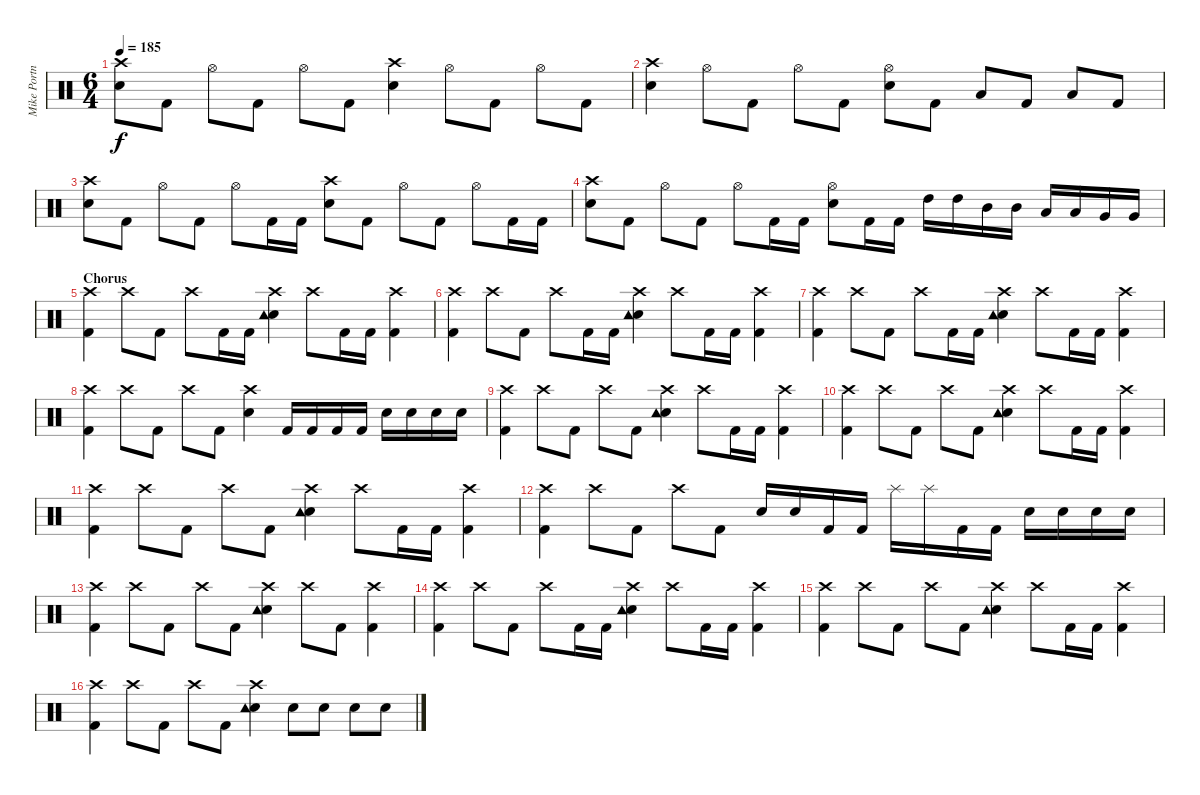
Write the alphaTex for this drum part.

\track ("Mike Portnoy" "Mike Portn") {instrument percussion}
\staff {score}
\articulation defaults
\ts (6 4)
\tempo 185
\clef neutral
\ks c
("Snare (hit) 2" "Crash high (hit)").8{dy f} "Kick (hit) 2".8 "Hi-Hat (open)".8 "Kick (hit) 2".8 "Hi-Hat (open)".8 "Kick (hit) 2".8 ("Snare (hit) 2" "Crash high (hit)").4 "Hi-Hat (open)".8 "Kick (hit) 2".8 "Hi-Hat (open)".8 "Kick (hit) 2".8 |
("Snare (hit) 2" "Crash high (hit)").4 "Hi-Hat (open)".8 "Kick (hit) 2".8 "Hi-Hat (open)".8 "Kick (hit) 2".8 ("Snare (hit) 2" "Hi-Hat (open)").8 "Kick (hit) 2".8 "Low Tom (hit)".8 "Kick (hit) 2".8 "Low Floor Tom (hit)".8 "Kick (hit) 2".8 |
("Snare (hit) 2" "Crash high (hit)").8 "Kick (hit) 2".8 "Hi-Hat (open)".8 "Kick (hit) 2".8 "Hi-Hat (open)".8 "Kick (hit) 2".16 "Kick (hit) 2".16 ("Snare (hit) 2" "Crash high (hit)").8 "Kick (hit) 2".8 "Hi-Hat (open)".8 "Kick (hit) 2".8 "Hi-Hat (open)".8 "Kick (hit) 2".16 "Kick (hit) 2".16 |
("Snare (hit) 2" "Crash high (hit)").8 "Kick (hit) 2".8 "Hi-Hat (open)".8 "Kick (hit) 2".8 "Hi-Hat (open)".8 "Kick (hit) 2".16 "Kick (hit) 2".16 ("Snare (hit) 2" "Hi-Hat (open)").8 "Kick (hit) 2".16 "Kick (hit) 2".16 "High Tom (hit)".16 "High Tom (hit)".16 "Mid Tom (hit)".16 "Mid Tom (hit)".16 "Low Tom (hit)".16 "Low Tom (hit)".16 "Very Low Tom (hit)".16 "Very Low Tom (hit)".16 |
\section ("" "Chorus")
("Crash high (hit)" "Kick (hit) 2").4 "Crash high (hit)".8 "Kick (hit) 2".8 "Crash high (hit)".8 "Kick (hit) 2".16 "Kick (hit) 2".16 ("Snare (hit) 2" "Crash high (hit)" "Tambourine (hit)").4 "Crash high (hit)".8 "Kick (hit) 2".16 "Kick (hit) 2".16 ("Crash high (hit)" "Kick (hit) 2").4 |
("Crash high (hit)" "Kick (hit) 2").4 "Crash high (hit)".8 "Kick (hit) 2".8 "Crash high (hit)".8 "Kick (hit) 2".16 "Kick (hit) 2".16 ("Snare (hit) 2" "Crash high (hit)" "Tambourine (hit)").4 "Crash high (hit)".8 "Kick (hit) 2".16 "Kick (hit) 2".16 ("Crash high (hit)" "Kick (hit) 2").4 |
("Crash high (hit)" "Kick (hit) 2").4 "Crash high (hit)".8 "Kick (hit) 2".8 "Crash high (hit)".8 "Kick (hit) 2".16 "Kick (hit) 2".16 ("Snare (hit) 2" "Crash high (hit)" "Tambourine (hit)").4 "Crash high (hit)".8 "Kick (hit) 2".16 "Kick (hit) 2".16 ("Crash high (hit)" "Kick (hit) 2").4 |
("Crash high (hit)" "Kick (hit) 2").4 "Crash high (hit)".8 "Kick (hit) 2".8 "Crash high (hit)".8 "Kick (hit) 2".8 ("Snare (hit) 2" "Crash high (hit)").4 "Kick (hit) 2".16 "Kick (hit) 2".16 "Kick (hit) 2".16 "Kick (hit) 2".16 "Snare (hit) 2".16 "Snare (hit) 2".16 "Snare (hit) 2".16 "Snare (hit) 2".16 |
("Crash high (hit)" "Kick (hit) 2").4 "Crash high (hit)".8 "Kick (hit) 2".8 "Crash high (hit)".8 "Kick (hit) 2".8 ("Snare (hit) 2" "Crash high (hit)" "Tambourine (hit)").4 "Crash high (hit)".8 "Kick (hit) 2".16 "Kick (hit) 2".16 ("Crash high (hit)" "Kick (hit) 2").4 |
("Crash high (hit)" "Kick (hit) 2").4 "Crash high (hit)".8 "Kick (hit) 2".8 "Crash high (hit)".8 "Kick (hit) 2".8 ("Snare (hit) 2" "Crash high (hit)" "Tambourine (hit)").4 "Crash high (hit)".8 "Kick (hit) 2".16 "Kick (hit) 2".16 ("Crash high (hit)" "Kick (hit) 2").4 |
("Crash high (hit)" "Kick (hit) 2").4 "Crash high (hit)".8 "Kick (hit) 2".8 "Crash high (hit)".8 "Kick (hit) 2".8 ("Snare (hit) 2" "Crash high (hit)" "Tambourine (hit)").4 "Crash high (hit)".8 "Kick (hit) 2".16 "Kick (hit) 2".16 ("Crash high (hit)" "Kick (hit) 2").4 |
("Crash high (hit)" "Kick (hit) 2").4 "Crash high (hit)".8 "Kick (hit) 2".8 "Crash high (hit)".8 "Kick (hit) 2".8 "Snare (hit) 2".16 "Snare (hit) 2".16 "Kick (hit) 2".16 "Kick (hit) 2".16 "Splash (hit)".16 "Splash (hit)".16 "Kick (hit) 2".16 "Kick (hit) 2".16 "Snare (hit) 2".16 "Snare (hit) 2".16 "Snare (hit) 2".16 "Snare (hit) 2".16 |
("Crash high (hit)" "Kick (hit) 2").4 "Crash high (hit)".8 "Kick (hit) 2".8 "Crash high (hit)".8 "Kick (hit) 2".8 ("Snare (hit) 2" "Crash high (hit)" "Tambourine (hit)").4 "Crash high (hit)".8 "Kick (hit) 2".8 ("Crash high (hit)" "Kick (hit) 2").4 |
("Crash high (hit)" "Kick (hit) 2").4 "Crash high (hit)".8 "Kick (hit) 2".8 "Crash high (hit)".8 "Kick (hit) 2".16 "Kick (hit) 2".16 ("Snare (hit) 2" "Crash high (hit)" "Tambourine (hit)").4 "Crash high (hit)".8 "Kick (hit) 2".16 "Kick (hit) 2".16 ("Crash high (hit)" "Kick (hit) 2").4 |
("Crash high (hit)" "Kick (hit) 2").4 "Crash high (hit)".8 "Kick (hit) 2".8 "Crash high (hit)".8 "Kick (hit) 2".8 ("Snare (hit) 2" "Crash high (hit)" "Tambourine (hit)").4 "Crash high (hit)".8 "Kick (hit) 2".16 "Kick (hit) 2".16 ("Crash high (hit)" "Kick (hit) 2").4 |
("Crash high (hit)" "Kick (hit) 2").4 "Crash high (hit)".8 "Kick (hit) 2".8 "Crash high (hit)".8 "Kick (hit) 2".8 ("Snare (hit) 2" "Crash high (hit)" "Tambourine (hit)").4 "Snare (hit) 2".8 "Snare (hit) 2".8 "Snare (hit) 2".8 "Snare (hit) 2".8
